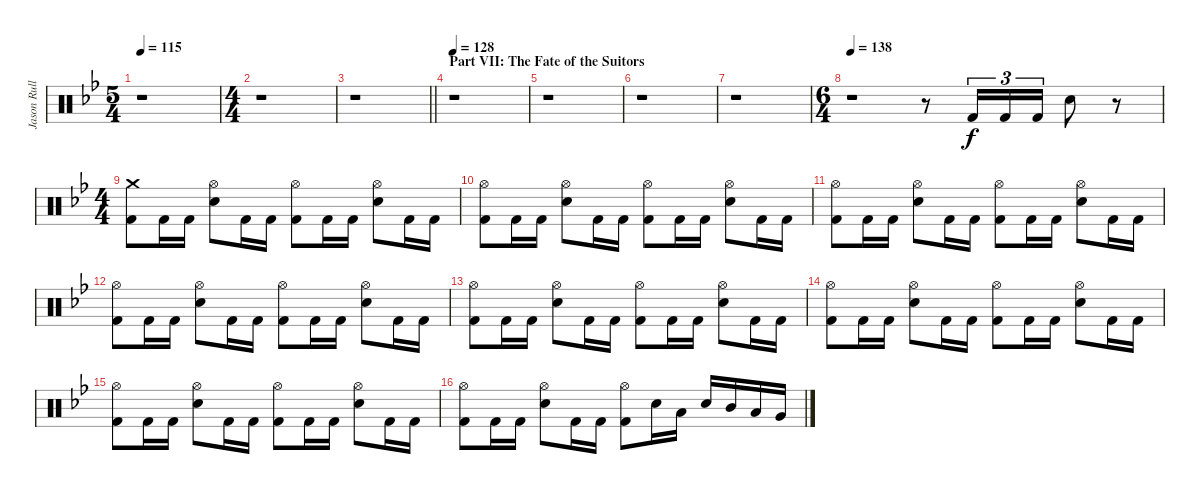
\track ("Jason Rullo (drums)" "Jason Rull") {instrument percussion}
\staff {score}
\articulation defaults
\ts (5 4)
\tempo 115
\clef neutral
\ks gminor
r.1{dy f} |
\ts (4 4)
r.1 |
\barLineRight lightlight
r.1 |
\section ("" "Part VII: The Fate of the Suitors ")
\tempo 128
r.1 |
r.1 |
r.1 |
r.1 |
\ts (6 4)
\tempo 138
r.1 r.8 "Kick (hit) 2".16{tu (3 2) volume 15} "Kick (hit) 2".16{tu (3 2)} "Kick (hit) 2".16{tu (3 2)} "Electric Snare (hit)".8 r.8 |
\ts (4 4)
("Crash medium (hit)" "Kick (hit) 2").8 "Kick (hit) 2".16 "Kick (hit) 2".16 ("Hi-Hat (open)" "Electric Snare (hit)").8 "Kick (hit) 2".16 "Kick (hit) 2".16 ("Hi-Hat (open)" "Kick (hit) 2").8 "Kick (hit) 2".16 "Kick (hit) 2".16 ("Hi-Hat (open)" "Electric Snare (hit)").8 "Kick (hit) 2".16 "Kick (hit) 2".16 |
("Hi-Hat (open)" "Kick (hit) 2").8 "Kick (hit) 2".16 "Kick (hit) 2".16 ("Hi-Hat (open)" "Electric Snare (hit)").8 "Kick (hit) 2".16 "Kick (hit) 2".16 ("Hi-Hat (open)" "Kick (hit) 2").8 "Kick (hit) 2".16 "Kick (hit) 2".16 ("Hi-Hat (open)" "Electric Snare (hit)").8 "Kick (hit) 2".16 "Kick (hit) 2".16 |
("Hi-Hat (open)" "Kick (hit) 2").8 "Kick (hit) 2".16 "Kick (hit) 2".16 ("Hi-Hat (open)" "Electric Snare (hit)").8 "Kick (hit) 2".16 "Kick (hit) 2".16 ("Hi-Hat (open)" "Kick (hit) 2").8 "Kick (hit) 2".16 "Kick (hit) 2".16 ("Hi-Hat (open)" "Electric Snare (hit)").8 "Kick (hit) 2".16 "Kick (hit) 2".16 |
("Hi-Hat (open)" "Kick (hit) 2").8 "Kick (hit) 2".16 "Kick (hit) 2".16 ("Hi-Hat (open)" "Electric Snare (hit)").8 "Kick (hit) 2".16 "Kick (hit) 2".16 ("Hi-Hat (open)" "Kick (hit) 2").8 "Kick (hit) 2".16 "Kick (hit) 2".16 ("Hi-Hat (open)" "Electric Snare (hit)").8 "Kick (hit) 2".16 "Kick (hit) 2".16 |
("Hi-Hat (open)" "Kick (hit) 2").8 "Kick (hit) 2".16 "Kick (hit) 2".16 ("Hi-Hat (open)" "Electric Snare (hit)").8 "Kick (hit) 2".16 "Kick (hit) 2".16 ("Hi-Hat (open)" "Kick (hit) 2").8 "Kick (hit) 2".16 "Kick (hit) 2".16 ("Hi-Hat (open)" "Electric Snare (hit)").8 "Kick (hit) 2".16 "Kick (hit) 2".16 |
("Hi-Hat (open)" "Kick (hit) 2").8 "Kick (hit) 2".16 "Kick (hit) 2".16 ("Hi-Hat (open)" "Electric Snare (hit)").8 "Kick (hit) 2".16 "Kick (hit) 2".16 ("Hi-Hat (open)" "Kick (hit) 2").8 "Kick (hit) 2".16 "Kick (hit) 2".16 ("Hi-Hat (open)" "Electric Snare (hit)").8 "Kick (hit) 2".16 "Kick (hit) 2".16 |
("Hi-Hat (open)" "Kick (hit) 2").8 "Kick (hit) 2".16 "Kick (hit) 2".16 ("Hi-Hat (open)" "Electric Snare (hit)").8 "Kick (hit) 2".16 "Kick (hit) 2".16 ("Hi-Hat (open)" "Kick (hit) 2").8 "Kick (hit) 2".16 "Kick (hit) 2".16 ("Hi-Hat (open)" "Electric Snare (hit)").8 "Kick (hit) 2".16 "Kick (hit) 2".16 |
("Hi-Hat (open)" "Kick (hit) 2").8 "Kick (hit) 2".16 "Kick (hit) 2".16 ("Hi-Hat (open)" "Electric Snare (hit)").8 "Kick (hit) 2".16 "Kick (hit) 2".16 ("Hi-Hat (open)" "Kick (hit) 2").8 "Electric Snare (hit)".16 "Low Tom (hit)".16 "Electric Snare (hit)".16 "Mid Tom (hit)".16 "Low Tom (hit)".16 "Very Low Tom (hit)".16
